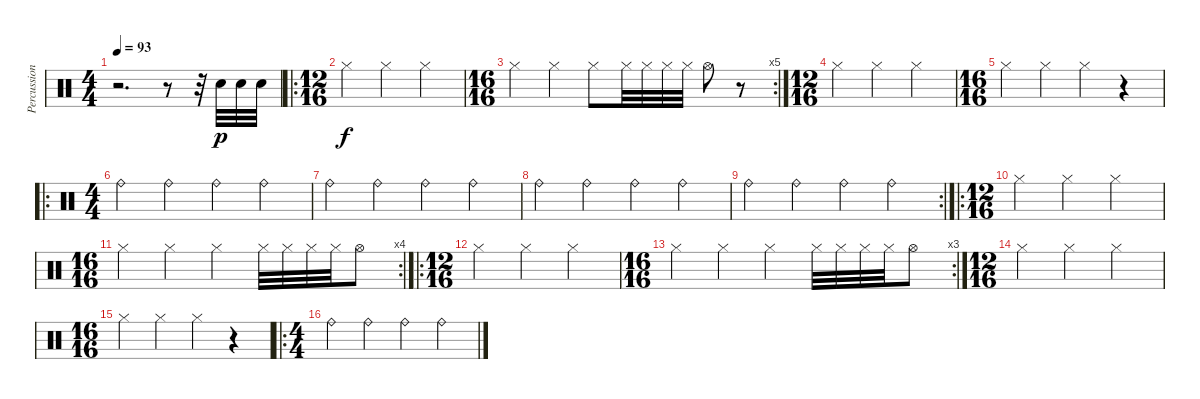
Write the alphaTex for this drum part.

\track ("Percussion" "Percussion") {instrument percussion}
\staff {score}
\articulation defaults
\ts (4 4)
\tempo 93
\clef neutral
\ks c
r.2{d dy p} r.8 r.32 "Electric Snare (hit)".32 "Electric Snare (hit)".32 "Electric Snare (hit)".32 |
\ro
\ts (12 16)
"Hi-Hat (closed)".4{dy f} "Hi-Hat (closed)".4 "Hi-Hat (closed)".4 |
\rc 5
\ts (16 16)
"Hi-Hat (closed)".4 "Hi-Hat (closed)".4 "Hi-Hat (closed)".8 "Hi-Hat (closed)".32 "Hi-Hat (closed)".32 "Hi-Hat (closed)".32 "Hi-Hat (closed)".32 "Hi-Hat (open)".8 r.8 |
\ts (12 16)
"Hi-Hat (closed)".4 "Hi-Hat (closed)".4 "Hi-Hat (closed)".4 |
\ts (16 16)
"Hi-Hat (closed)".4 "Hi-Hat (closed)".4 "Hi-Hat (closed)".4 r.4 |
\ro
\ts (4 4)
"Ride (bell)".4 "Ride (bell)".4 "Ride (bell)".4 "Ride (bell)".4 |
"Ride (bell)".4 "Ride (bell)".4 "Ride (bell)".4 "Ride (bell)".4 |
"Ride (bell)".4 "Ride (bell)".4 "Ride (bell)".4 "Ride (bell)".4 |
\rc 2 "Ride (bell)".4 "Ride (bell)".4 "Ride (bell)".4 "Ride (bell)".4
|
\ro
\ts (12 16)
"Hi-Hat (closed)".4 "Hi-Hat (closed)".4 "Hi-Hat (closed)".4 |
\rc 4
\ts (16 16)
"Hi-Hat (closed)".4 "Hi-Hat (closed)".4 "Hi-Hat (closed)".4 "Hi-Hat (closed)".32 "Hi-Hat (closed)".32 "Hi-Hat (closed)".32 "Hi-Hat (closed)".32 "Hi-Hat (open)".8 |
\ro
\ts (12 16)
"Hi-Hat (closed)".4 "Hi-Hat (closed)".4 "Hi-Hat (closed)".4 |
\rc 3
\ts (16 16)
"Hi-Hat (closed)".4 "Hi-Hat (closed)".4 "Hi-Hat (closed)".4 "Hi-Hat (closed)".32 "Hi-Hat (closed)".32 "Hi-Hat (closed)".32 "Hi-Hat (closed)".32 "Hi-Hat (open)".8 |
\ts (12 16)
"Hi-Hat (closed)".4 "Hi-Hat (closed)".4 "Hi-Hat (closed)".4 |
\ts (16 16)
"Hi-Hat (closed)".4 "Hi-Hat (closed)".4 "Hi-Hat (closed)".4 r.4 |
\ro
\ts (4 4)
"Ride (bell)".4 "Ride (bell)".4 "Ride (bell)".4 "Ride (bell)".4
